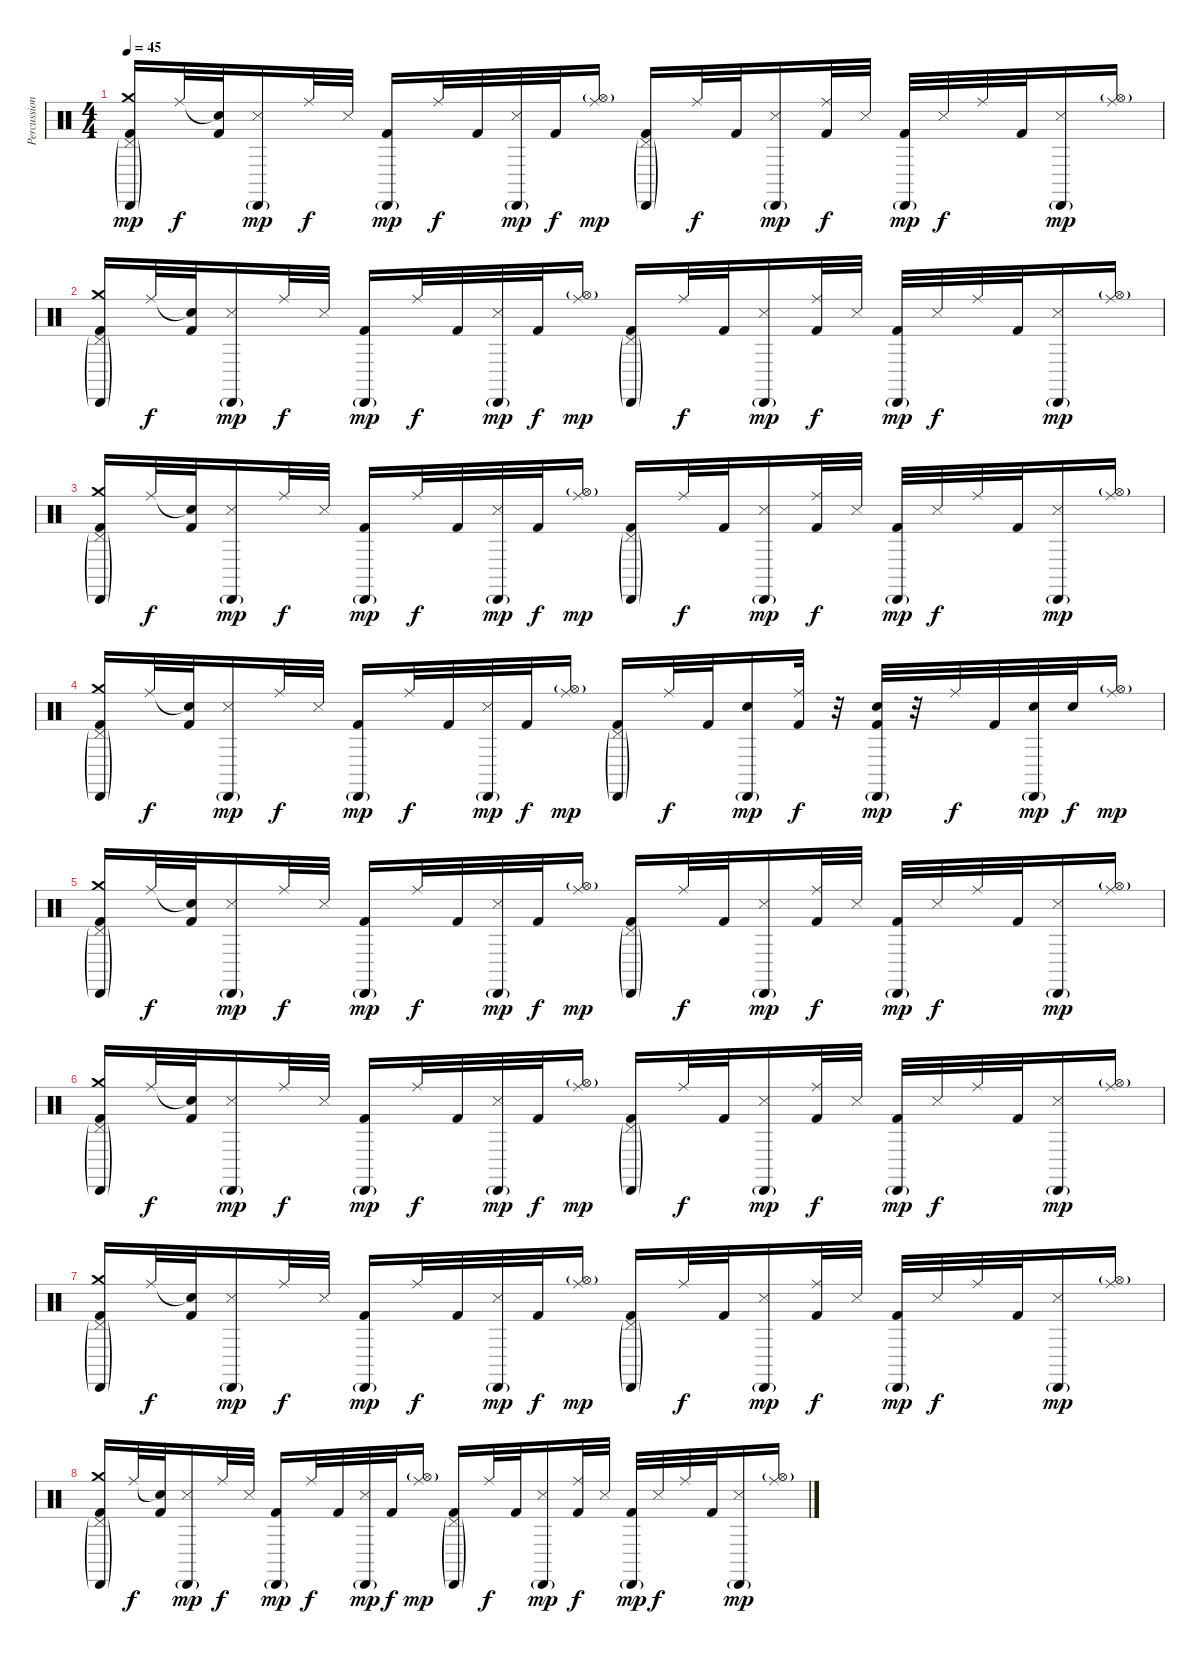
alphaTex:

\track ("Percussion" "Percussion") {instrument percussion}
\staff {score}
\articulation defaults
\ts (4 4)
\tempo 45
\clef neutral
\ks c
("Crash medium (hit)" "Pedal Hi-Hat (hit)"{g} "Cabasa (hit)"{g} "Kick (hit) 2").16{dy mp} "Ride (middle)".32{dy f} ("Snare (hit)"{t} "Kick (hit) 2").32 ("Cabasa (hit)"{g} "Snare (side stick) 3").16{dy mp} "Ride (middle)".32{dy f} "Snare (side stick) 3".32 ("Cabasa (hit)"{g} "Kick (hit) 2").16{dy mp} "Ride (middle)".32{dy f} "Kick (hit) 2".32 ("Cabasa (hit)"{g} "Snare (side stick) 3").32{dy mp} "Kick (hit) 2".32{dy f} ("Hi-Hat (open)"{g} "Ride (middle)").16{dy mp} ("Pedal Hi-Hat (hit)"{g} "Cabasa (hit)"{g} "Kick (hit) 2").16 "Ride (middle)".32{dy f} "Kick (hit) 2".32 ("Cabasa (hit)"{g} "Snare (side stick) 3").16{dy mp} ("Ride (middle)" "Kick (hit) 2").32{dy f} "Snare (side stick) 3".32 ("Cabasa (hit)"{g} "Kick (hit) 2").32{dy mp} "Snare (side stick) 3".32{dy f} "Ride (middle)".32 "Kick (hit) 2".32 ("Cabasa (hit)"{g} "Snare (side stick) 3").16{dy mp} ("Hi-Hat (open)"{g} "Ride (middle)").16 |
("Crash medium (hit)" "Pedal Hi-Hat (hit)"{g} "Cabasa (hit)"{g} "Kick (hit) 2").16 "Ride (middle)".32{dy f} ("Snare (hit)"{t} "Kick (hit) 2").32 ("Cabasa (hit)"{g} "Snare (side stick) 3").16{dy mp} "Ride (middle)".32{dy f} "Snare (side stick) 3".32 ("Cabasa (hit)"{g} "Kick (hit) 2").16{dy mp} "Ride (middle)".32{dy f} "Kick (hit) 2".32 ("Cabasa (hit)"{g} "Snare (side stick) 3").32{dy mp} "Kick (hit) 2".32{dy f} ("Hi-Hat (open)"{g} "Ride (middle)").16{dy mp} ("Pedal Hi-Hat (hit)"{g} "Cabasa (hit)"{g} "Kick (hit) 2").16 "Ride (middle)".32{dy f} "Kick (hit) 2".32 ("Cabasa (hit)"{g} "Snare (side stick) 3").16{dy mp} ("Ride (middle)" "Kick (hit) 2").32{dy f} "Snare (side stick) 3".32 ("Cabasa (hit)"{g} "Kick (hit) 2").32{dy mp} "Snare (side stick) 3".32{dy f} "Ride (middle)".32 "Kick (hit) 2".32 ("Cabasa (hit)"{g} "Snare (side stick) 3").16{dy mp} ("Hi-Hat (open)"{g} "Ride (middle)").16 |
("Crash medium (hit)" "Pedal Hi-Hat (hit)"{g} "Cabasa (hit)"{g} "Kick (hit) 2").16 "Ride (middle)".32{dy f} ("Snare (hit)"{t} "Kick (hit) 2").32 ("Cabasa (hit)"{g} "Snare (side stick) 3").16{dy mp} "Ride (middle)".32{dy f} "Snare (side stick) 3".32 ("Cabasa (hit)"{g} "Kick (hit) 2").16{dy mp} "Ride (middle)".32{dy f} "Kick (hit) 2".32 ("Cabasa (hit)"{g} "Snare (side stick) 3").32{dy mp} "Kick (hit) 2".32{dy f} ("Hi-Hat (open)"{g} "Ride (middle)").16{dy mp} ("Pedal Hi-Hat (hit)"{g} "Cabasa (hit)"{g} "Kick (hit) 2").16 "Ride (middle)".32{dy f} "Kick (hit) 2".32 ("Cabasa (hit)"{g} "Snare (side stick) 3").16{dy mp} ("Ride (middle)" "Kick (hit) 2").32{dy f} "Snare (side stick) 3".32 ("Cabasa (hit)"{g} "Kick (hit) 2").32{dy mp} "Snare (side stick) 3".32{dy f} "Ride (middle)".32 "Kick (hit) 2".32 ("Cabasa (hit)"{g} "Snare (side stick) 3").16{dy mp} ("Hi-Hat (open)"{g} "Ride (middle)").16 |
("Crash medium (hit)" "Pedal Hi-Hat (hit)"{g} "Cabasa (hit)"{g} "Kick (hit) 2").16 "Ride (middle)".32{dy f} ("Snare (hit)"{t} "Kick (hit) 2").32 ("Cabasa (hit)"{g} "Snare (side stick) 3").16{dy mp} "Ride (middle)".32{dy f} "Snare (side stick) 3".32 ("Cabasa (hit)"{g} "Kick (hit) 2").16{dy mp} "Ride (middle)".32{dy f} "Kick (hit) 2".32 ("Cabasa (hit)"{g} "Snare (side stick) 3").32{dy mp} "Kick (hit) 2".32{dy f} ("Hi-Hat (open)"{g} "Ride (middle)").16{dy mp} ("Pedal Hi-Hat (hit)"{g} "Cabasa (hit)"{g} "Kick (hit) 2").16 "Ride (middle)".32{dy f} "Kick (hit) 2".32 ("Cabasa (hit)"{g} "Electric Snare (hit)").16{dy mp} ("Ride (middle)" "Kick (hit) 2").32{dy f} r.32 ("Cabasa (hit)"{g} "Electric Snare (hit)" "Kick (hit) 2").32{dy mp} r.32 "Ride (middle)".32{dy f} "Kick (hit) 2".32 ("Cabasa (hit)"{g} "Electric Snare (hit)").32{dy mp} "Electric Snare (hit)".32{dy f} ("Hi-Hat (open)"{g} "Ride (middle)").16{dy mp} |
("Crash medium (hit)" "Pedal Hi-Hat (hit)"{g} "Cabasa (hit)"{g} "Kick (hit) 2").16 "Ride (middle)".32{dy f} ("Snare (hit)"{t} "Kick (hit) 2").32 ("Cabasa (hit)"{g} "Snare (side stick) 3").16{dy mp} "Ride (middle)".32{dy f} "Snare (side stick) 3".32 ("Cabasa (hit)"{g} "Kick (hit) 2").16{dy mp} "Ride (middle)".32{dy f} "Kick (hit) 2".32 ("Cabasa (hit)"{g} "Snare (side stick) 3").32{dy mp} "Kick (hit) 2".32{dy f} ("Hi-Hat (open)"{g} "Ride (middle)").16{dy mp} ("Pedal Hi-Hat (hit)"{g} "Cabasa (hit)"{g} "Kick (hit) 2").16 "Ride (middle)".32{dy f} "Kick (hit) 2".32 ("Cabasa (hit)"{g} "Snare (side stick) 3").16{dy mp} ("Ride (middle)" "Kick (hit) 2").32{dy f} "Snare (side stick) 3".32 ("Cabasa (hit)"{g} "Kick (hit) 2").32{dy mp} "Snare (side stick) 3".32{dy f} "Ride (middle)".32 "Kick (hit) 2".32 ("Cabasa (hit)"{g} "Snare (side stick) 3").16{dy mp} ("Hi-Hat (open)"{g} "Ride (middle)").16 |
("Crash medium (hit)" "Pedal Hi-Hat (hit)"{g} "Cabasa (hit)"{g} "Kick (hit) 2").16 "Ride (middle)".32{dy f} ("Snare (hit)"{t} "Kick (hit) 2").32 ("Cabasa (hit)"{g} "Snare (side stick) 3").16{dy mp} "Ride (middle)".32{dy f} "Snare (side stick) 3".32 ("Cabasa (hit)"{g} "Kick (hit) 2").16{dy mp} "Ride (middle)".32{dy f} "Kick (hit) 2".32 ("Cabasa (hit)"{g} "Snare (side stick) 3").32{dy mp} "Kick (hit) 2".32{dy f} ("Hi-Hat (open)"{g} "Ride (middle)").16{dy mp} ("Pedal Hi-Hat (hit)"{g} "Cabasa (hit)"{g} "Kick (hit) 2").16 "Ride (middle)".32{dy f} "Kick (hit) 2".32 ("Cabasa (hit)"{g} "Snare (side stick) 3").16{dy mp} ("Ride (middle)" "Kick (hit) 2").32{dy f} "Snare (side stick) 3".32 ("Cabasa (hit)"{g} "Kick (hit) 2").32{dy mp} "Snare (side stick) 3".32{dy f} "Ride (middle)".32 "Kick (hit) 2".32 ("Cabasa (hit)"{g} "Snare (side stick) 3").16{dy mp} ("Hi-Hat (open)"{g} "Ride (middle)").16 |
("Crash medium (hit)" "Pedal Hi-Hat (hit)"{g} "Cabasa (hit)"{g} "Kick (hit) 2").16 "Ride (middle)".32{dy f} ("Snare (hit)"{t} "Kick (hit) 2").32 ("Cabasa (hit)"{g} "Snare (side stick) 3").16{dy mp} "Ride (middle)".32{dy f} "Snare (side stick) 3".32 ("Cabasa (hit)"{g} "Kick (hit) 2").16{dy mp} "Ride (middle)".32{dy f} "Kick (hit) 2".32 ("Cabasa (hit)"{g} "Snare (side stick) 3").32{dy mp} "Kick (hit) 2".32{dy f} ("Hi-Hat (open)"{g} "Ride (middle)").16{dy mp} ("Pedal Hi-Hat (hit)"{g} "Cabasa (hit)"{g} "Kick (hit) 2").16 "Ride (middle)".32{dy f} "Kick (hit) 2".32 ("Cabasa (hit)"{g} "Snare (side stick) 3").16{dy mp} ("Ride (middle)" "Kick (hit) 2").32{dy f} "Snare (side stick) 3".32 ("Cabasa (hit)"{g} "Kick (hit) 2").32{dy mp} "Snare (side stick) 3".32{dy f} "Ride (middle)".32 "Kick (hit) 2".32 ("Cabasa (hit)"{g} "Snare (side stick) 3").16{dy mp} ("Hi-Hat (open)"{g} "Ride (middle)").16 |
("Crash medium (hit)" "Pedal Hi-Hat (hit)"{g} "Cabasa (hit)"{g} "Kick (hit) 2").16 "Ride (middle)".32{dy f} ("Snare (hit)"{t} "Kick (hit) 2").32 ("Cabasa (hit)"{g} "Snare (side stick) 3").16{dy mp} "Ride (middle)".32{dy f} "Snare (side stick) 3".32 ("Cabasa (hit)"{g} "Kick (hit) 2").16{dy mp} "Ride (middle)".32{dy f} "Kick (hit) 2".32 ("Cabasa (hit)"{g} "Snare (side stick) 3").32{dy mp} "Kick (hit) 2".32{dy f} ("Hi-Hat (open)"{g} "Ride (middle)").16{dy mp} ("Pedal Hi-Hat (hit)"{g} "Cabasa (hit)"{g} "Kick (hit) 2").16 "Ride (middle)".32{dy f} "Kick (hit) 2".32 ("Cabasa (hit)"{g} "Snare (side stick) 3").16{dy mp} ("Ride (middle)" "Kick (hit) 2").32{dy f} "Snare (side stick) 3".32 ("Cabasa (hit)"{g} "Kick (hit) 2").32{dy mp} "Snare (side stick) 3".32{dy f} "Ride (middle)".32 "Kick (hit) 2".32 ("Cabasa (hit)"{g} "Snare (side stick) 3").16{dy mp} ("Hi-Hat (open)"{g} "Ride (middle)").16
